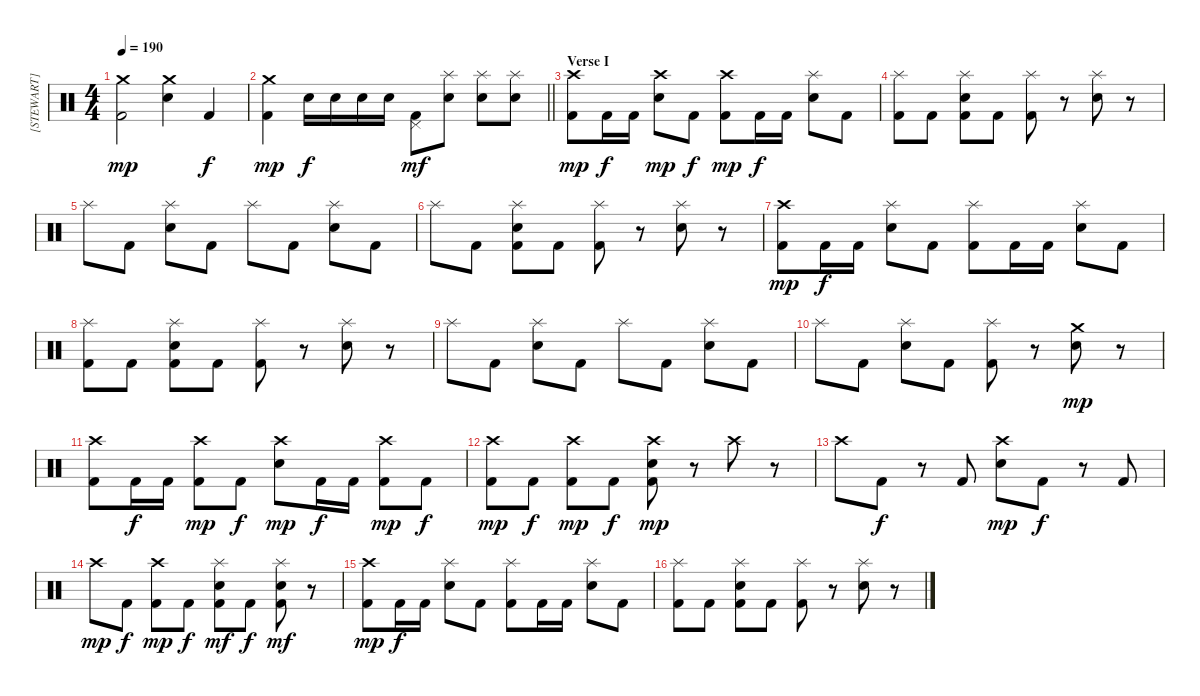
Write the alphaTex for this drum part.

\track ("[STEWART]" "[STEWART]") {instrument percussion}
\staff {score}
\articulation defaults
\ts (4 4)
\tempo 190
\clef neutral
\ks c
("Crash medium (hit)" "Kick (hit) 2").2{dy mp} ("Crash medium (hit)" "Electric Snare (hit)").4 "Kick (hit) 2".4{dy f} |
\barLineRight lightlight
("Crash medium (hit)" "Kick (hit) 2").4{dy mp} "Electric Snare (hit)".16{dy f} "Electric Snare (hit)".16 "Electric Snare (hit)".16 "Electric Snare (hit)".16 ("Pedal Hi-Hat (hit)" "Kick (hit) 2").8{dy mf} ("Splash (hit)" "Electric Snare (hit)").8 ("Splash (hit)" "Electric Snare (hit)").8 ("Splash (hit)" "Electric Snare (hit)").8 |
\section ("" "Verse I")
("Crash high (hit)" "Kick (hit) 2").8{dy mp} "Kick (hit) 2".16{dy f} "Kick (hit) 2".16 ("Crash high (hit)" "Electric Snare (hit)").8{dy mp} "Kick (hit) 2".8{dy f} ("Crash high (hit)" "Kick (hit) 2").8{dy mp} "Kick (hit) 2".16{dy f} "Kick (hit) 2".16 ("Splash (hit)" "Electric Snare (hit)").8 "Kick (hit) 2".8 |
("Splash (hit)" "Kick (hit) 2").8 "Kick (hit) 2".8 ("Splash (hit)" "Electric Snare (hit)" "Kick (hit) 2").8 "Kick (hit) 2".8 ("Splash (hit)" "Kick (hit) 2").8 r.8 ("Splash (hit)" "Electric Snare (hit)").8 r.8 |
"Splash (hit)".8 "Kick (hit) 2".8 ("Splash (hit)" "Electric Snare (hit)").8 "Kick (hit) 2".8 "Splash (hit)".8 "Kick (hit) 2".8 ("Splash (hit)" "Electric Snare (hit)").8 "Kick (hit) 2".8 |
"Splash (hit)".8 "Kick (hit) 2".8 ("Splash (hit)" "Electric Snare (hit)" "Kick (hit) 2").8 "Kick (hit) 2".8 ("Splash (hit)" "Kick (hit) 2").8 r.8 ("Splash (hit)" "Electric Snare (hit)").8 r.8 |
("Crash high (hit)" "Kick (hit) 2").8{dy mp} "Kick (hit) 2".16{dy f} "Kick (hit) 2".16 ("Splash (hit)" "Electric Snare (hit)").8 "Kick (hit) 2".8 ("Splash (hit)" "Kick (hit) 2").8 "Kick (hit) 2".16 "Kick (hit) 2".16 ("Splash (hit)" "Electric Snare (hit)").8 "Kick (hit) 2".8 |
("Splash (hit)" "Kick (hit) 2").8 "Kick (hit) 2".8 ("Splash (hit)" "Electric Snare (hit)" "Kick (hit) 2").8 "Kick (hit) 2".8 ("Splash (hit)" "Kick (hit) 2").8 r.8 ("Splash (hit)" "Electric Snare (hit)").8 r.8 |
"Splash (hit)".8 "Kick (hit) 2".8 ("Splash (hit)" "Electric Snare (hit)").8 "Kick (hit) 2".8 "Splash (hit)".8 "Kick (hit) 2".8 ("Splash (hit)" "Electric Snare (hit)").8 "Kick (hit) 2".8 |
"Splash (hit)".8 "Kick (hit) 2".8 ("Splash (hit)" "Electric Snare (hit)").8 "Kick (hit) 2".8 ("Splash (hit)" "Kick (hit) 2").8 r.8 ("Crash medium (hit)" "Electric Snare (hit)").8{dy mp} r.8 |
("Crash high (hit)" "Kick (hit) 2").8 "Kick (hit) 2".16{dy f} "Kick (hit) 2".16 ("Crash high (hit)" "Kick (hit) 2").8{dy mp} "Kick (hit) 2".8{dy f} ("Crash high (hit)" "Electric Snare (hit)").8{dy mp} "Kick (hit) 2".16{dy f} "Kick (hit) 2".16 ("Crash high (hit)" "Kick (hit) 2").8{dy mp} "Kick (hit) 2".8{dy f} |
("Crash high (hit)" "Kick (hit) 2").8{dy mp} "Kick (hit) 2".8{dy f} ("Crash high (hit)" "Kick (hit) 2").8{dy mp} "Kick (hit) 2".8{dy f} ("Crash high (hit)" "Electric Snare (hit)" "Kick (hit) 2").8{dy mp} r.8 "Crash high (hit)".8 r.8 |
"Crash high (hit)".8 "Kick (hit) 2".8{dy f} r.8 "Kick (hit) 2".8 ("Crash high (hit)" "Electric Snare (hit)").8{dy mp} "Kick (hit) 2".8{dy f} r.8 "Kick (hit) 2".8 |
"Crash high (hit)".8{dy mp} "Kick (hit) 2".8{dy f} ("Crash high (hit)" "Kick (hit) 2").8{dy mp} "Kick (hit) 2".8{dy f} ("Splash (hit)" "Electric Snare (hit)" "Kick (hit) 2").8{dy mf} "Kick (hit) 2".8{dy f} ("Splash (hit)" "Electric Snare (hit)" "Kick (hit) 2").8{dy mf} r.8 |
("Crash high (hit)" "Kick (hit) 2").8{dy mp} "Kick (hit) 2".16{dy f} "Kick (hit) 2".16 ("Splash (hit)" "Electric Snare (hit)").8 "Kick (hit) 2".8 ("Splash (hit)" "Kick (hit) 2").8 "Kick (hit) 2".16 "Kick (hit) 2".16 ("Splash (hit)" "Electric Snare (hit)").8 "Kick (hit) 2".8 |
("Splash (hit)" "Kick (hit) 2").8 "Kick (hit) 2".8 ("Splash (hit)" "Electric Snare (hit)" "Kick (hit) 2").8 "Kick (hit) 2".8 ("Splash (hit)" "Kick (hit) 2").8 r.8 ("Splash (hit)" "Electric Snare (hit)").8 r.8
